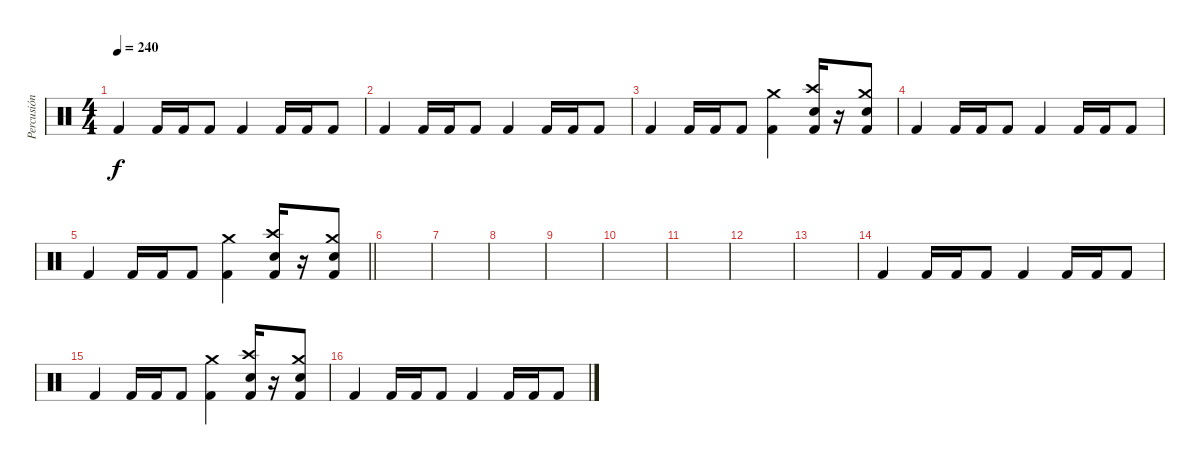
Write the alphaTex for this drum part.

\track ("Percusión" "Percusión") {instrument percussion}
\staff {score}
\articulation defaults
\ts (4 4)
\tempo 240
\clef neutral
\ks c "Kick (hit) 2".4{dy f} "Kick (hit) 2".16 "Kick (hit) 2".16 "Kick (hit) 2".8 "Kick (hit) 2".4 "Kick (hit) 2".16 "Kick (hit) 2".16 "Kick (hit) 2".8
|
"Kick (hit) 2".4 "Kick (hit) 2".16 "Kick (hit) 2".16 "Kick (hit) 2".8 "Kick (hit) 2".4 "Kick (hit) 2".16 "Kick (hit) 2".16 "Kick (hit) 2".8 |
"Kick (hit) 2".4 "Kick (hit) 2".16 "Kick (hit) 2".16 "Kick (hit) 2".8 ("Crash medium (hit)" "Kick (hit) 2").4 ("Crash high (hit)" "Electric Snare (hit)" "Kick (hit) 2").16 r.16 ("Crash medium (hit)" "Electric Snare (hit)" "Kick (hit) 2").8 |
"Kick (hit) 2".4 "Kick (hit) 2".16 "Kick (hit) 2".16 "Kick (hit) 2".8 "Kick (hit) 2".4 "Kick (hit) 2".16 "Kick (hit) 2".16 "Kick (hit) 2".8 |
\barLineRight lightlight "Kick (hit) 2".4 "Kick (hit) 2".16 "Kick (hit) 2".16 "Kick (hit) 2".8
("Crash medium (hit)" "Kick (hit) 2").4 ("Crash high (hit)" "Electric Snare (hit)" "Kick (hit) 2").16 r.16 ("Crash medium (hit)" "Electric Snare (hit)" "Kick (hit) 2").8 |
|
|
|
|
|
|
|
|
"Kick (hit) 2".4 "Kick (hit) 2".16 "Kick (hit) 2".16 "Kick (hit) 2".8 "Kick (hit) 2".4 "Kick (hit) 2".16 "Kick (hit) 2".16 "Kick (hit) 2".8 |
"Kick (hit) 2".4 "Kick (hit) 2".16 "Kick (hit) 2".16 "Kick (hit) 2".8 ("Crash medium (hit)" "Kick (hit) 2").4 ("Crash high (hit)" "Electric Snare (hit)" "Kick (hit) 2").16 r.16 ("Crash medium (hit)" "Electric Snare (hit)" "Kick (hit) 2").8 |
"Kick (hit) 2".4 "Kick (hit) 2".16 "Kick (hit) 2".16 "Kick (hit) 2".8 "Kick (hit) 2".4 "Kick (hit) 2".16 "Kick (hit) 2".16 "Kick (hit) 2".8
